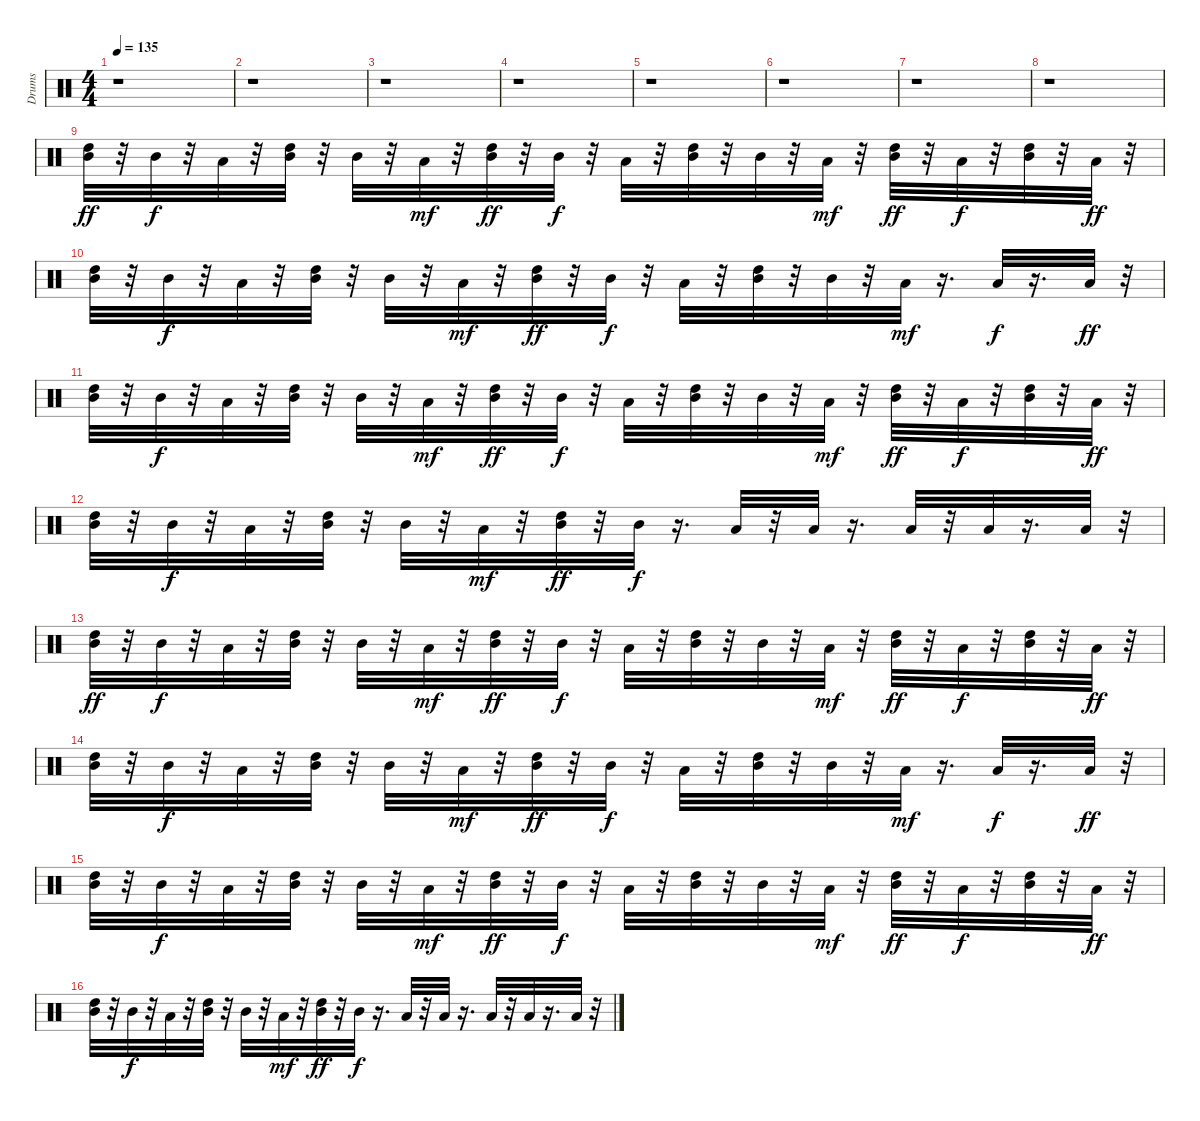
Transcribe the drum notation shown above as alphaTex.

\track ("Drums" "Drums") {instrument percussion}
\staff {score}
\articulation defaults
\ts (4 4)
\tempo 135
\clef neutral
\ks c
r.1{dy f} |
r.1 |
r.1 |
r.1 |
r.1 |
r.1 |
r.1 |
r.1 |
("High Tom (hit)" "Mid Tom (hit)").32{dy ff} r.32 "Mid Tom (hit)".32{dy f} r.32 "Low Tom (hit)".32 r.32 ("High Tom (hit)" "Mid Tom (hit)").32 r.32 "Mid Tom (hit)".32 r.32 "Low Tom (hit)".32{dy mf} r.32 ("High Tom (hit)" "Mid Tom (hit)").32{dy ff} r.32 "Mid Tom (hit)".32{dy f} r.32 "Low Tom (hit)".32 r.32 ("High Tom (hit)" "Mid Tom (hit)").32 r.32 "Mid Tom (hit)".32 r.32 "Low Tom (hit)".32{dy mf} r.32 ("High Tom (hit)" "Mid Tom (hit)").32{dy ff} r.32 "Low Tom (hit)".32{dy f} r.32 ("High Tom (hit)" "Mid Tom (hit)").32 r.32 "Low Tom (hit)".32{dy ff} r.32 |
("High Tom (hit)" "Mid Tom (hit)").32 r.32 "Mid Tom (hit)".32{dy f} r.32 "Low Tom (hit)".32 r.32 ("High Tom (hit)" "Mid Tom (hit)").32 r.32 "Mid Tom (hit)".32 r.32 "Low Tom (hit)".32{dy mf} r.32 ("High Tom (hit)" "Mid Tom (hit)").32{dy ff} r.32 "Mid Tom (hit)".32{dy f} r.32 "Low Tom (hit)".32 r.32 ("High Tom (hit)" "Mid Tom (hit)").32 r.32 "Mid Tom (hit)".32 r.32 "Low Tom (hit)".32{dy mf} r.16{d} "Low Tom (hit)".32{dy f} r.16{d} "Low Tom (hit)".32{dy ff} r.32 |
("High Tom (hit)" "Mid Tom (hit)").32 r.32 "Mid Tom (hit)".32{dy f} r.32 "Low Tom (hit)".32 r.32 ("High Tom (hit)" "Mid Tom (hit)").32 r.32 "Mid Tom (hit)".32 r.32 "Low Tom (hit)".32{dy mf} r.32 ("High Tom (hit)" "Mid Tom (hit)").32{dy ff} r.32 "Mid Tom (hit)".32{dy f} r.32 "Low Tom (hit)".32 r.32 ("High Tom (hit)" "Mid Tom (hit)").32 r.32 "Mid Tom (hit)".32 r.32 "Low Tom (hit)".32{dy mf} r.32 ("High Tom (hit)" "Mid Tom (hit)").32{dy ff} r.32 "Low Tom (hit)".32{dy f} r.32 ("High Tom (hit)" "Mid Tom (hit)").32 r.32 "Low Tom (hit)".32{dy ff} r.32 |
("High Tom (hit)" "Mid Tom (hit)").32 r.32 "Mid Tom (hit)".32{dy f} r.32 "Low Tom (hit)".32 r.32 ("High Tom (hit)" "Mid Tom (hit)").32 r.32 "Mid Tom (hit)".32 r.32 "Low Tom (hit)".32{dy mf} r.32 ("High Tom (hit)" "Mid Tom (hit)").32{dy ff} r.32 "Mid Tom (hit)".32{dy f} r.16{d} "Low Tom (hit)".32 r.32 "Low Tom (hit)".32 r.16{d} "Low Tom (hit)".32 r.32 "Low Tom (hit)".32 r.16{d} "Low Tom (hit)".32 r.32 |
("High Tom (hit)" "Mid Tom (hit)").32{dy ff} r.32 "Mid Tom (hit)".32{dy f} r.32 "Low Tom (hit)".32 r.32 ("High Tom (hit)" "Mid Tom (hit)").32 r.32 "Mid Tom (hit)".32 r.32 "Low Tom (hit)".32{dy mf} r.32 ("High Tom (hit)" "Mid Tom (hit)").32{dy ff} r.32 "Mid Tom (hit)".32{dy f} r.32 "Low Tom (hit)".32 r.32 ("High Tom (hit)" "Mid Tom (hit)").32 r.32 "Mid Tom (hit)".32 r.32 "Low Tom (hit)".32{dy mf} r.32 ("High Tom (hit)" "Mid Tom (hit)").32{dy ff} r.32 "Low Tom (hit)".32{dy f} r.32 ("High Tom (hit)" "Mid Tom (hit)").32 r.32 "Low Tom (hit)".32{dy ff} r.32 |
("High Tom (hit)" "Mid Tom (hit)").32 r.32 "Mid Tom (hit)".32{dy f} r.32 "Low Tom (hit)".32 r.32 ("High Tom (hit)" "Mid Tom (hit)").32 r.32 "Mid Tom (hit)".32 r.32 "Low Tom (hit)".32{dy mf} r.32 ("High Tom (hit)" "Mid Tom (hit)").32{dy ff} r.32 "Mid Tom (hit)".32{dy f} r.32 "Low Tom (hit)".32 r.32 ("High Tom (hit)" "Mid Tom (hit)").32 r.32 "Mid Tom (hit)".32 r.32 "Low Tom (hit)".32{dy mf} r.16{d} "Low Tom (hit)".32{dy f} r.16{d} "Low Tom (hit)".32{dy ff} r.32 |
("High Tom (hit)" "Mid Tom (hit)").32 r.32 "Mid Tom (hit)".32{dy f} r.32 "Low Tom (hit)".32 r.32 ("High Tom (hit)" "Mid Tom (hit)").32 r.32 "Mid Tom (hit)".32 r.32 "Low Tom (hit)".32{dy mf} r.32 ("High Tom (hit)" "Mid Tom (hit)").32{dy ff} r.32 "Mid Tom (hit)".32{dy f} r.32 "Low Tom (hit)".32 r.32 ("High Tom (hit)" "Mid Tom (hit)").32 r.32 "Mid Tom (hit)".32 r.32 "Low Tom (hit)".32{dy mf} r.32 ("High Tom (hit)" "Mid Tom (hit)").32{dy ff} r.32 "Low Tom (hit)".32{dy f} r.32 ("High Tom (hit)" "Mid Tom (hit)").32 r.32 "Low Tom (hit)".32{dy ff} r.32 |
("High Tom (hit)" "Mid Tom (hit)").32 r.32 "Mid Tom (hit)".32{dy f} r.32 "Low Tom (hit)".32 r.32 ("High Tom (hit)" "Mid Tom (hit)").32 r.32 "Mid Tom (hit)".32 r.32 "Low Tom (hit)".32{dy mf} r.32 ("High Tom (hit)" "Mid Tom (hit)").32{dy ff} r.32 "Mid Tom (hit)".32{dy f} r.16{d} "Low Tom (hit)".32 r.32 "Low Tom (hit)".32 r.16{d} "Low Tom (hit)".32 r.32 "Low Tom (hit)".32 r.16{d} "Low Tom (hit)".32 r.32
